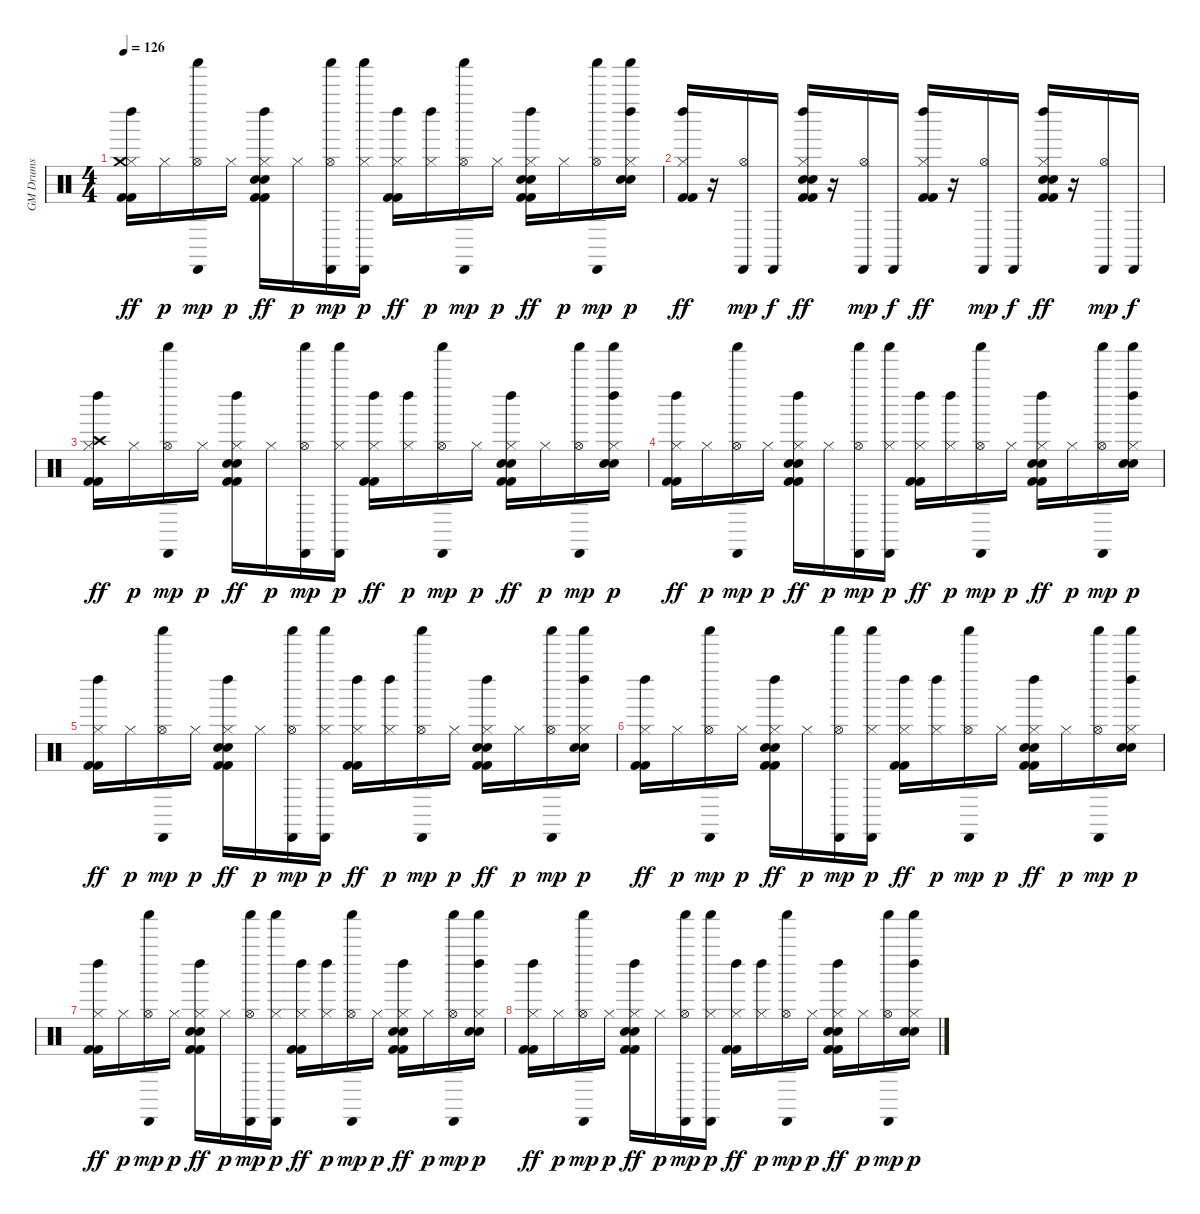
\track ("GM Drums" "GM Drums") {instrument percussion}
\staff {score}
\articulation defaults
\ts (4 4)
\tempo 126
\clef neutral
\ks c
("Kick (hit) 2" "Kick (hit) 2" "Hi-Hat (closed)" "Crash medium (hit)" "Left Maraca (hit)").16{dy ff} "Hi-Hat (closed)".16{dy p} ("Hi-Hat (open)" "Cabasa (hit)" "Shaker (hit)").16{dy mp} "Hi-Hat (closed)".16{dy p} ("Kick (hit) 2" "Kick (hit) 2" "Hand Clap (hit)" "Electric Snare (hit)" "Hi-Hat (closed)" "Left Maraca (hit)").16{dy ff} "Hi-Hat (closed)".16{dy p} ("Hi-Hat (open)" "Cabasa (hit)" "Shaker (hit)").16{dy mp} ("Hi-Hat (closed)" "Cabasa (hit)" "Shaker (hit)").16{dy p} ("Kick (hit) 2" "Kick (hit) 2" "Hi-Hat (closed)" "Left Maraca (hit)").16{dy ff} ("Hi-Hat (closed)" "Left Maraca (hit)").16{dy p} ("Hi-Hat (open)" "Cabasa (hit)" "Shaker (hit)").16{dy mp} "Hi-Hat (closed)".16{dy p} ("Kick (hit) 2" "Kick (hit) 2" "Hand Clap (hit)" "Electric Snare (hit)" "Hi-Hat (closed)" "Left Maraca (hit)").16{dy ff} "Hi-Hat (closed)".16{dy p} ("Hi-Hat (open)" "Cabasa (hit)" "Shaker (hit)").16{dy mp} ("Hand Clap (hit)" "Electric Snare (hit)" "Hi-Hat (closed)" "Left Maraca (hit)" "Shaker (hit)").16{dy p} |
("Kick (hit) 2" "Kick (hit) 2" "Hi-Hat (closed)" "Left Maraca (hit)").16{dy ff} r.16 ("Hi-Hat (open)" "Cabasa (hit)").16{dy mp} "Cabasa (hit)".16{dy f} ("Kick (hit) 2" "Kick (hit) 2" "Hand Clap (hit)" "Electric Snare (hit)" "Hi-Hat (closed)" "Left Maraca (hit)").16{dy ff} r.16 ("Hi-Hat (open)" "Cabasa (hit)").16{dy mp} "Cabasa (hit)".16{dy f} ("Kick (hit) 2" "Kick (hit) 2" "Hi-Hat (closed)" "Left Maraca (hit)").16{dy ff} r.16 ("Hi-Hat (open)" "Cabasa (hit)").16{dy mp} "Cabasa (hit)".16{dy f} ("Kick (hit) 2" "Kick (hit) 2" "Hand Clap (hit)" "Electric Snare (hit)" "Hi-Hat (closed)" "Left Maraca (hit)").16{dy ff} r.16 ("Hi-Hat (open)" "Cabasa (hit)").16{dy mp} "Cabasa (hit)".16{dy f} |
("Kick (hit) 2" "Kick (hit) 2" "Hi-Hat (closed)" "Crash high (hit)" "Left Maraca (hit)").16{dy ff} "Hi-Hat (closed)".16{dy p} ("Hi-Hat (open)" "Cabasa (hit)" "Shaker (hit)").16{dy mp} "Hi-Hat (closed)".16{dy p} ("Kick (hit) 2" "Kick (hit) 2" "Hand Clap (hit)" "Electric Snare (hit)" "Hi-Hat (closed)" "Left Maraca (hit)").16{dy ff} "Hi-Hat (closed)".16{dy p} ("Hi-Hat (open)" "Cabasa (hit)" "Shaker (hit)").16{dy mp} ("Hi-Hat (closed)" "Cabasa (hit)" "Shaker (hit)").16{dy p} ("Kick (hit) 2" "Kick (hit) 2" "Hi-Hat (closed)" "Left Maraca (hit)").16{dy ff} ("Hi-Hat (closed)" "Left Maraca (hit)").16{dy p} ("Hi-Hat (open)" "Cabasa (hit)" "Shaker (hit)").16{dy mp} "Hi-Hat (closed)".16{dy p} ("Kick (hit) 2" "Kick (hit) 2" "Hand Clap (hit)" "Electric Snare (hit)" "Hi-Hat (closed)" "Left Maraca (hit)").16{dy ff} "Hi-Hat (closed)".16{dy p} ("Hi-Hat (open)" "Cabasa (hit)" "Shaker (hit)").16{dy mp} ("Hand Clap (hit)" "Electric Snare (hit)" "Hi-Hat (closed)" "Left Maraca (hit)" "Shaker (hit)").16{dy p} |
("Kick (hit) 2" "Kick (hit) 2" "Hi-Hat (closed)" "Left Maraca (hit)").16{dy ff} "Hi-Hat (closed)".16{dy p} ("Hi-Hat (open)" "Cabasa (hit)" "Shaker (hit)").16{dy mp} "Hi-Hat (closed)".16{dy p} ("Kick (hit) 2" "Kick (hit) 2" "Hand Clap (hit)" "Electric Snare (hit)" "Hi-Hat (closed)" "Left Maraca (hit)").16{dy ff} "Hi-Hat (closed)".16{dy p} ("Hi-Hat (open)" "Cabasa (hit)" "Shaker (hit)").16{dy mp} ("Hi-Hat (closed)" "Cabasa (hit)" "Shaker (hit)").16{dy p} ("Kick (hit) 2" "Kick (hit) 2" "Hi-Hat (closed)" "Left Maraca (hit)").16{dy ff} ("Hi-Hat (closed)" "Left Maraca (hit)").16{dy p} ("Hi-Hat (open)" "Cabasa (hit)" "Shaker (hit)").16{dy mp} "Hi-Hat (closed)".16{dy p} ("Kick (hit) 2" "Kick (hit) 2" "Hand Clap (hit)" "Electric Snare (hit)" "Hi-Hat (closed)" "Left Maraca (hit)").16{dy ff} "Hi-Hat (closed)".16{dy p} ("Hi-Hat (open)" "Cabasa (hit)" "Shaker (hit)").16{dy mp} ("Hand Clap (hit)" "Electric Snare (hit)" "Hi-Hat (closed)" "Left Maraca (hit)" "Shaker (hit)").16{dy p} |
("Kick (hit) 2" "Kick (hit) 2" "Hi-Hat (closed)" "Left Maraca (hit)").16{dy ff} "Hi-Hat (closed)".16{dy p} ("Hi-Hat (open)" "Cabasa (hit)" "Shaker (hit)").16{dy mp} "Hi-Hat (closed)".16{dy p} ("Kick (hit) 2" "Kick (hit) 2" "Hand Clap (hit)" "Electric Snare (hit)" "Hi-Hat (closed)" "Left Maraca (hit)").16{dy ff} "Hi-Hat (closed)".16{dy p} ("Hi-Hat (open)" "Cabasa (hit)" "Shaker (hit)").16{dy mp} ("Hi-Hat (closed)" "Cabasa (hit)" "Shaker (hit)").16{dy p} ("Kick (hit) 2" "Kick (hit) 2" "Hi-Hat (closed)" "Left Maraca (hit)").16{dy ff} ("Hi-Hat (closed)" "Left Maraca (hit)").16{dy p} ("Hi-Hat (open)" "Cabasa (hit)" "Shaker (hit)").16{dy mp} "Hi-Hat (closed)".16{dy p} ("Kick (hit) 2" "Kick (hit) 2" "Hand Clap (hit)" "Electric Snare (hit)" "Hi-Hat (closed)" "Left Maraca (hit)").16{dy ff} "Hi-Hat (closed)".16{dy p} ("Hi-Hat (open)" "Cabasa (hit)" "Shaker (hit)").16{dy mp} ("Hand Clap (hit)" "Electric Snare (hit)" "Hi-Hat (closed)" "Left Maraca (hit)" "Shaker (hit)").16{dy p} |
("Kick (hit) 2" "Kick (hit) 2" "Hi-Hat (closed)" "Left Maraca (hit)").16{dy ff} "Hi-Hat (closed)".16{dy p} ("Hi-Hat (open)" "Cabasa (hit)" "Shaker (hit)").16{dy mp} "Hi-Hat (closed)".16{dy p} ("Kick (hit) 2" "Kick (hit) 2" "Hand Clap (hit)" "Electric Snare (hit)" "Hi-Hat (closed)" "Left Maraca (hit)").16{dy ff} "Hi-Hat (closed)".16{dy p} ("Hi-Hat (open)" "Cabasa (hit)" "Shaker (hit)").16{dy mp} ("Hi-Hat (closed)" "Cabasa (hit)" "Shaker (hit)").16{dy p} ("Kick (hit) 2" "Kick (hit) 2" "Hi-Hat (closed)" "Left Maraca (hit)").16{dy ff} ("Hi-Hat (closed)" "Left Maraca (hit)").16{dy p} ("Hi-Hat (open)" "Cabasa (hit)" "Shaker (hit)").16{dy mp} "Hi-Hat (closed)".16{dy p} ("Kick (hit) 2" "Kick (hit) 2" "Hand Clap (hit)" "Electric Snare (hit)" "Hi-Hat (closed)" "Left Maraca (hit)").16{dy ff} "Hi-Hat (closed)".16{dy p} ("Hi-Hat (open)" "Cabasa (hit)" "Shaker (hit)").16{dy mp} ("Hand Clap (hit)" "Electric Snare (hit)" "Hi-Hat (closed)" "Left Maraca (hit)" "Shaker (hit)").16{dy p} |
("Kick (hit) 2" "Kick (hit) 2" "Hi-Hat (closed)" "Left Maraca (hit)").16{dy ff} "Hi-Hat (closed)".16{dy p} ("Hi-Hat (open)" "Cabasa (hit)" "Shaker (hit)").16{dy mp} "Hi-Hat (closed)".16{dy p} ("Kick (hit) 2" "Kick (hit) 2" "Hand Clap (hit)" "Electric Snare (hit)" "Hi-Hat (closed)" "Left Maraca (hit)").16{dy ff} "Hi-Hat (closed)".16{dy p} ("Hi-Hat (open)" "Cabasa (hit)" "Shaker (hit)").16{dy mp} ("Hi-Hat (closed)" "Cabasa (hit)" "Shaker (hit)").16{dy p} ("Kick (hit) 2" "Kick (hit) 2" "Hi-Hat (closed)" "Left Maraca (hit)").16{dy ff} ("Hi-Hat (closed)" "Left Maraca (hit)").16{dy p} ("Hi-Hat (open)" "Cabasa (hit)" "Shaker (hit)").16{dy mp} "Hi-Hat (closed)".16{dy p} ("Kick (hit) 2" "Kick (hit) 2" "Hand Clap (hit)" "Electric Snare (hit)" "Hi-Hat (closed)" "Left Maraca (hit)").16{dy ff} "Hi-Hat (closed)".16{dy p} ("Hi-Hat (open)" "Cabasa (hit)" "Shaker (hit)").16{dy mp} ("Hand Clap (hit)" "Electric Snare (hit)" "Hi-Hat (closed)" "Left Maraca (hit)" "Shaker (hit)").16{dy p} |
("Kick (hit) 2" "Kick (hit) 2" "Hi-Hat (closed)" "Left Maraca (hit)").16{dy ff} "Hi-Hat (closed)".16{dy p} ("Hi-Hat (open)" "Cabasa (hit)" "Shaker (hit)").16{dy mp} "Hi-Hat (closed)".16{dy p} ("Kick (hit) 2" "Kick (hit) 2" "Hand Clap (hit)" "Electric Snare (hit)" "Hi-Hat (closed)" "Left Maraca (hit)").16{dy ff} "Hi-Hat (closed)".16{dy p} ("Hi-Hat (open)" "Cabasa (hit)" "Shaker (hit)").16{dy mp} ("Hi-Hat (closed)" "Cabasa (hit)" "Shaker (hit)").16{dy p} ("Kick (hit) 2" "Kick (hit) 2" "Hi-Hat (closed)" "Left Maraca (hit)").16{dy ff} ("Hi-Hat (closed)" "Left Maraca (hit)").16{dy p} ("Hi-Hat (open)" "Cabasa (hit)" "Shaker (hit)").16{dy mp} "Hi-Hat (closed)".16{dy p} ("Kick (hit) 2" "Kick (hit) 2" "Hand Clap (hit)" "Electric Snare (hit)" "Hi-Hat (closed)" "Left Maraca (hit)").16{dy ff} "Hi-Hat (closed)".16{dy p} ("Hi-Hat (open)" "Cabasa (hit)" "Shaker (hit)").16{dy mp} ("Hand Clap (hit)" "Electric Snare (hit)" "Hi-Hat (closed)" "Left Maraca (hit)" "Shaker (hit)").16{dy p}
